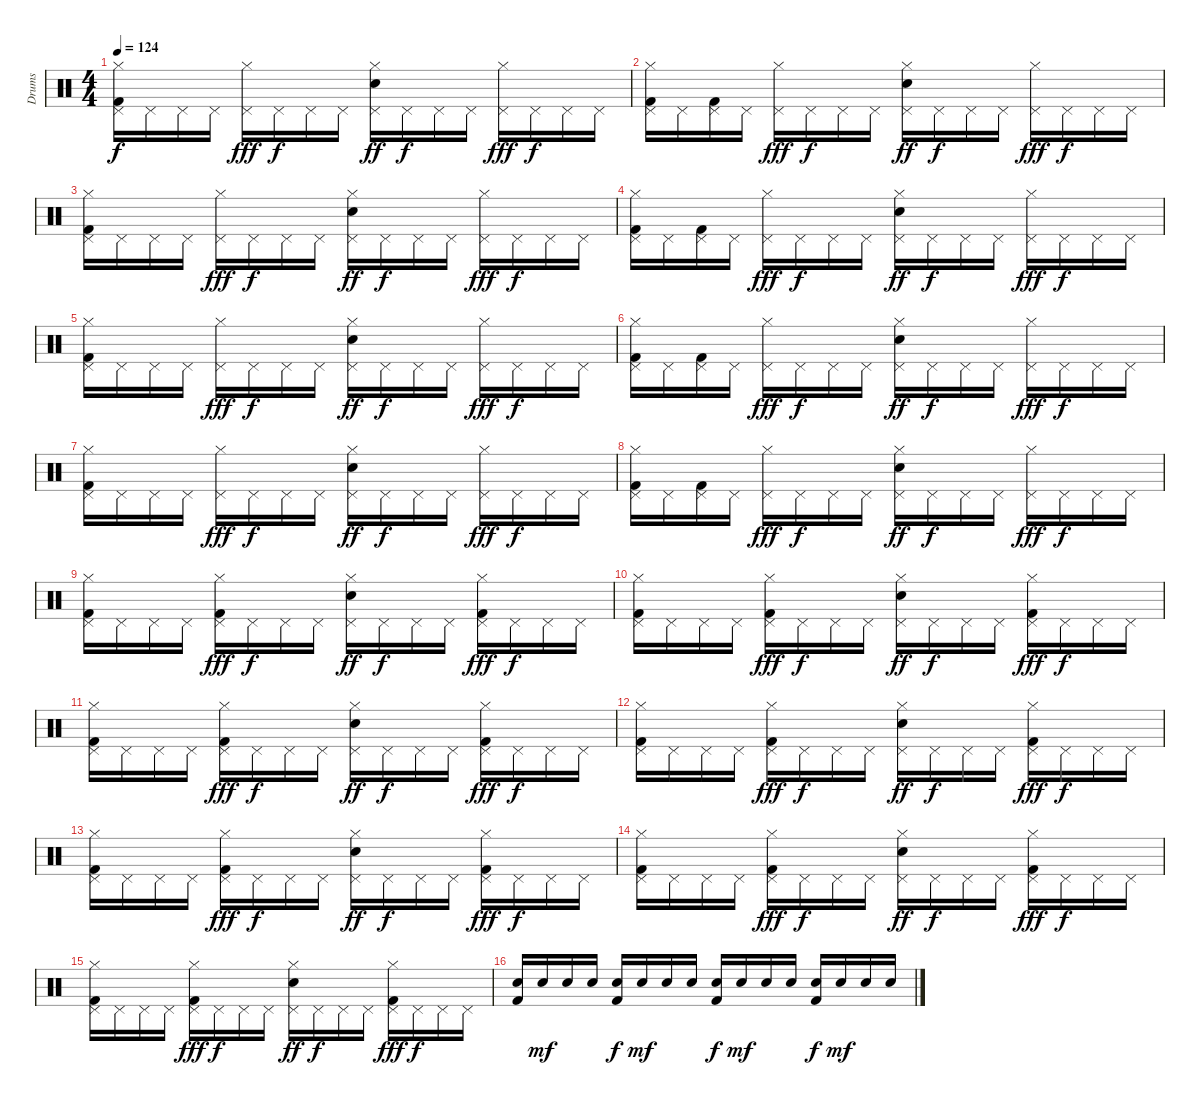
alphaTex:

\track ("Drums" "Drums") {instrument percussion}
\staff {score}
\articulation defaults
\ts (4 4)
\tempo 124
\clef neutral
\ks c
("Hi-Hat (closed)" "Pedal Hi-Hat (hit)" "Kick (hit) 2").16{dy f} "Pedal Hi-Hat (hit)".16 "Pedal Hi-Hat (hit)".16 "Pedal Hi-Hat (hit)".16 ("Hi-Hat (closed)" "Pedal Hi-Hat (hit)").16{dy fff} "Pedal Hi-Hat (hit)".16{dy f} "Pedal Hi-Hat (hit)".16 "Pedal Hi-Hat (hit)".16 ("Hi-Hat (closed)" "Pedal Hi-Hat (hit)" "Electric Snare (hit)").16{dy ff} "Pedal Hi-Hat (hit)".16{dy f} "Pedal Hi-Hat (hit)".16 "Pedal Hi-Hat (hit)".16 ("Hi-Hat (closed)" "Pedal Hi-Hat (hit)").16{dy fff} "Pedal Hi-Hat (hit)".16{dy f} "Pedal Hi-Hat (hit)".16 "Pedal Hi-Hat (hit)".16 |
("Hi-Hat (closed)" "Pedal Hi-Hat (hit)" "Kick (hit) 2").16 "Pedal Hi-Hat (hit)".16 ("Pedal Hi-Hat (hit)" "Kick (hit) 2").16 "Pedal Hi-Hat (hit)".16 ("Hi-Hat (closed)" "Pedal Hi-Hat (hit)").16{dy fff} "Pedal Hi-Hat (hit)".16{dy f} "Pedal Hi-Hat (hit)".16 "Pedal Hi-Hat (hit)".16 ("Hi-Hat (closed)" "Pedal Hi-Hat (hit)" "Electric Snare (hit)").16{dy ff} "Pedal Hi-Hat (hit)".16{dy f} "Pedal Hi-Hat (hit)".16 "Pedal Hi-Hat (hit)".16 ("Hi-Hat (closed)" "Pedal Hi-Hat (hit)").16{dy fff} "Pedal Hi-Hat (hit)".16{dy f} "Pedal Hi-Hat (hit)".16 "Pedal Hi-Hat (hit)".16 |
("Hi-Hat (closed)" "Pedal Hi-Hat (hit)" "Kick (hit) 2").16 "Pedal Hi-Hat (hit)".16 "Pedal Hi-Hat (hit)".16 "Pedal Hi-Hat (hit)".16 ("Hi-Hat (closed)" "Pedal Hi-Hat (hit)").16{dy fff} "Pedal Hi-Hat (hit)".16{dy f} "Pedal Hi-Hat (hit)".16 "Pedal Hi-Hat (hit)".16 ("Hi-Hat (closed)" "Pedal Hi-Hat (hit)" "Electric Snare (hit)").16{dy ff} "Pedal Hi-Hat (hit)".16{dy f} "Pedal Hi-Hat (hit)".16 "Pedal Hi-Hat (hit)".16 ("Hi-Hat (closed)" "Pedal Hi-Hat (hit)").16{dy fff} "Pedal Hi-Hat (hit)".16{dy f} "Pedal Hi-Hat (hit)".16 "Pedal Hi-Hat (hit)".16 |
("Hi-Hat (closed)" "Pedal Hi-Hat (hit)" "Kick (hit) 2").16 "Pedal Hi-Hat (hit)".16 ("Pedal Hi-Hat (hit)" "Kick (hit) 2").16 "Pedal Hi-Hat (hit)".16 ("Hi-Hat (closed)" "Pedal Hi-Hat (hit)").16{dy fff} "Pedal Hi-Hat (hit)".16{dy f} "Pedal Hi-Hat (hit)".16 "Pedal Hi-Hat (hit)".16 ("Hi-Hat (closed)" "Pedal Hi-Hat (hit)" "Electric Snare (hit)").16{dy ff} "Pedal Hi-Hat (hit)".16{dy f} "Pedal Hi-Hat (hit)".16 "Pedal Hi-Hat (hit)".16 ("Hi-Hat (closed)" "Pedal Hi-Hat (hit)").16{dy fff} "Pedal Hi-Hat (hit)".16{dy f} "Pedal Hi-Hat (hit)".16 "Pedal Hi-Hat (hit)".16 |
("Hi-Hat (closed)" "Pedal Hi-Hat (hit)" "Kick (hit) 2").16 "Pedal Hi-Hat (hit)".16 "Pedal Hi-Hat (hit)".16 "Pedal Hi-Hat (hit)".16 ("Hi-Hat (closed)" "Pedal Hi-Hat (hit)").16{dy fff} "Pedal Hi-Hat (hit)".16{dy f} "Pedal Hi-Hat (hit)".16 "Pedal Hi-Hat (hit)".16 ("Hi-Hat (closed)" "Pedal Hi-Hat (hit)" "Electric Snare (hit)").16{dy ff} "Pedal Hi-Hat (hit)".16{dy f} "Pedal Hi-Hat (hit)".16 "Pedal Hi-Hat (hit)".16 ("Hi-Hat (closed)" "Pedal Hi-Hat (hit)").16{dy fff} "Pedal Hi-Hat (hit)".16{dy f} "Pedal Hi-Hat (hit)".16 "Pedal Hi-Hat (hit)".16 |
("Hi-Hat (closed)" "Pedal Hi-Hat (hit)" "Kick (hit) 2").16 "Pedal Hi-Hat (hit)".16 ("Pedal Hi-Hat (hit)" "Kick (hit) 2").16 "Pedal Hi-Hat (hit)".16 ("Hi-Hat (closed)" "Pedal Hi-Hat (hit)").16{dy fff} "Pedal Hi-Hat (hit)".16{dy f} "Pedal Hi-Hat (hit)".16 "Pedal Hi-Hat (hit)".16 ("Hi-Hat (closed)" "Pedal Hi-Hat (hit)" "Electric Snare (hit)").16{dy ff} "Pedal Hi-Hat (hit)".16{dy f} "Pedal Hi-Hat (hit)".16 "Pedal Hi-Hat (hit)".16 ("Hi-Hat (closed)" "Pedal Hi-Hat (hit)").16{dy fff} "Pedal Hi-Hat (hit)".16{dy f} "Pedal Hi-Hat (hit)".16 "Pedal Hi-Hat (hit)".16 |
("Hi-Hat (closed)" "Pedal Hi-Hat (hit)" "Kick (hit) 2").16 "Pedal Hi-Hat (hit)".16 "Pedal Hi-Hat (hit)".16 "Pedal Hi-Hat (hit)".16 ("Hi-Hat (closed)" "Pedal Hi-Hat (hit)").16{dy fff} "Pedal Hi-Hat (hit)".16{dy f} "Pedal Hi-Hat (hit)".16 "Pedal Hi-Hat (hit)".16 ("Hi-Hat (closed)" "Pedal Hi-Hat (hit)" "Electric Snare (hit)").16{dy ff} "Pedal Hi-Hat (hit)".16{dy f} "Pedal Hi-Hat (hit)".16 "Pedal Hi-Hat (hit)".16 ("Hi-Hat (closed)" "Pedal Hi-Hat (hit)").16{dy fff} "Pedal Hi-Hat (hit)".16{dy f} "Pedal Hi-Hat (hit)".16 "Pedal Hi-Hat (hit)".16 |
("Hi-Hat (closed)" "Pedal Hi-Hat (hit)" "Kick (hit) 2").16 "Pedal Hi-Hat (hit)".16 ("Pedal Hi-Hat (hit)" "Kick (hit) 2").16 "Pedal Hi-Hat (hit)".16 ("Hi-Hat (closed)" "Pedal Hi-Hat (hit)").16{dy fff} "Pedal Hi-Hat (hit)".16{dy f} "Pedal Hi-Hat (hit)".16 "Pedal Hi-Hat (hit)".16 ("Hi-Hat (closed)" "Pedal Hi-Hat (hit)" "Electric Snare (hit)").16{dy ff} "Pedal Hi-Hat (hit)".16{dy f} "Pedal Hi-Hat (hit)".16 "Pedal Hi-Hat (hit)".16 ("Hi-Hat (closed)" "Pedal Hi-Hat (hit)").16{dy fff} "Pedal Hi-Hat (hit)".16{dy f} "Pedal Hi-Hat (hit)".16 "Pedal Hi-Hat (hit)".16 |
("Hi-Hat (closed)" "Pedal Hi-Hat (hit)" "Kick (hit) 2").16 "Pedal Hi-Hat (hit)".16 "Pedal Hi-Hat (hit)".16 "Pedal Hi-Hat (hit)".16 ("Hi-Hat (closed)" "Pedal Hi-Hat (hit)" "Kick (hit) 2").16{dy fff} "Pedal Hi-Hat (hit)".16{dy f} "Pedal Hi-Hat (hit)".16 "Pedal Hi-Hat (hit)".16 ("Hi-Hat (closed)" "Pedal Hi-Hat (hit)" "Electric Snare (hit)").16{dy ff} "Pedal Hi-Hat (hit)".16{dy f} "Pedal Hi-Hat (hit)".16 "Pedal Hi-Hat (hit)".16 ("Hi-Hat (closed)" "Pedal Hi-Hat (hit)" "Kick (hit) 2").16{dy fff} "Pedal Hi-Hat (hit)".16{dy f} "Pedal Hi-Hat (hit)".16 "Pedal Hi-Hat (hit)".16 |
("Hi-Hat (closed)" "Pedal Hi-Hat (hit)" "Kick (hit) 2").16 "Pedal Hi-Hat (hit)".16 "Pedal Hi-Hat (hit)".16 "Pedal Hi-Hat (hit)".16 ("Hi-Hat (closed)" "Pedal Hi-Hat (hit)" "Kick (hit) 2").16{dy fff} "Pedal Hi-Hat (hit)".16{dy f} "Pedal Hi-Hat (hit)".16 "Pedal Hi-Hat (hit)".16 ("Hi-Hat (closed)" "Pedal Hi-Hat (hit)" "Electric Snare (hit)").16{dy ff} "Pedal Hi-Hat (hit)".16{dy f} "Pedal Hi-Hat (hit)".16 "Pedal Hi-Hat (hit)".16 ("Hi-Hat (closed)" "Pedal Hi-Hat (hit)" "Kick (hit) 2").16{dy fff} "Pedal Hi-Hat (hit)".16{dy f} "Pedal Hi-Hat (hit)".16 "Pedal Hi-Hat (hit)".16 |
("Hi-Hat (closed)" "Pedal Hi-Hat (hit)" "Kick (hit) 2").16 "Pedal Hi-Hat (hit)".16 "Pedal Hi-Hat (hit)".16 "Pedal Hi-Hat (hit)".16 ("Hi-Hat (closed)" "Pedal Hi-Hat (hit)" "Kick (hit) 2").16{dy fff} "Pedal Hi-Hat (hit)".16{dy f} "Pedal Hi-Hat (hit)".16 "Pedal Hi-Hat (hit)".16 ("Hi-Hat (closed)" "Pedal Hi-Hat (hit)" "Electric Snare (hit)").16{dy ff} "Pedal Hi-Hat (hit)".16{dy f} "Pedal Hi-Hat (hit)".16 "Pedal Hi-Hat (hit)".16 ("Hi-Hat (closed)" "Pedal Hi-Hat (hit)" "Kick (hit) 2").16{dy fff} "Pedal Hi-Hat (hit)".16{dy f} "Pedal Hi-Hat (hit)".16 "Pedal Hi-Hat (hit)".16 |
("Hi-Hat (closed)" "Pedal Hi-Hat (hit)" "Kick (hit) 2").16 "Pedal Hi-Hat (hit)".16 "Pedal Hi-Hat (hit)".16 "Pedal Hi-Hat (hit)".16 ("Hi-Hat (closed)" "Pedal Hi-Hat (hit)" "Kick (hit) 2").16{dy fff} "Pedal Hi-Hat (hit)".16{dy f} "Pedal Hi-Hat (hit)".16 "Pedal Hi-Hat (hit)".16 ("Hi-Hat (closed)" "Pedal Hi-Hat (hit)" "Electric Snare (hit)").16{dy ff} "Pedal Hi-Hat (hit)".16{dy f} "Pedal Hi-Hat (hit)".16 "Pedal Hi-Hat (hit)".16 ("Hi-Hat (closed)" "Pedal Hi-Hat (hit)" "Kick (hit) 2").16{dy fff} "Pedal Hi-Hat (hit)".16{dy f} "Pedal Hi-Hat (hit)".16 "Pedal Hi-Hat (hit)".16 |
("Hi-Hat (closed)" "Pedal Hi-Hat (hit)" "Kick (hit) 2").16 "Pedal Hi-Hat (hit)".16 "Pedal Hi-Hat (hit)".16 "Pedal Hi-Hat (hit)".16 ("Hi-Hat (closed)" "Pedal Hi-Hat (hit)" "Kick (hit) 2").16{dy fff} "Pedal Hi-Hat (hit)".16{dy f} "Pedal Hi-Hat (hit)".16 "Pedal Hi-Hat (hit)".16 ("Hi-Hat (closed)" "Pedal Hi-Hat (hit)" "Electric Snare (hit)").16{dy ff} "Pedal Hi-Hat (hit)".16{dy f} "Pedal Hi-Hat (hit)".16 "Pedal Hi-Hat (hit)".16 ("Hi-Hat (closed)" "Pedal Hi-Hat (hit)" "Kick (hit) 2").16{dy fff} "Pedal Hi-Hat (hit)".16{dy f} "Pedal Hi-Hat (hit)".16 "Pedal Hi-Hat (hit)".16 |
("Hi-Hat (closed)" "Pedal Hi-Hat (hit)" "Kick (hit) 2").16 "Pedal Hi-Hat (hit)".16 "Pedal Hi-Hat (hit)".16 "Pedal Hi-Hat (hit)".16 ("Hi-Hat (closed)" "Pedal Hi-Hat (hit)" "Kick (hit) 2").16{dy fff} "Pedal Hi-Hat (hit)".16{dy f} "Pedal Hi-Hat (hit)".16 "Pedal Hi-Hat (hit)".16 ("Hi-Hat (closed)" "Pedal Hi-Hat (hit)" "Electric Snare (hit)").16{dy ff} "Pedal Hi-Hat (hit)".16{dy f} "Pedal Hi-Hat (hit)".16 "Pedal Hi-Hat (hit)".16 ("Hi-Hat (closed)" "Pedal Hi-Hat (hit)" "Kick (hit) 2").16{dy fff} "Pedal Hi-Hat (hit)".16{dy f} "Pedal Hi-Hat (hit)".16 "Pedal Hi-Hat (hit)".16 |
("Hi-Hat (closed)" "Pedal Hi-Hat (hit)" "Kick (hit) 2").16 "Pedal Hi-Hat (hit)".16 "Pedal Hi-Hat (hit)".16 "Pedal Hi-Hat (hit)".16 ("Hi-Hat (closed)" "Pedal Hi-Hat (hit)" "Kick (hit) 2").16{dy fff} "Pedal Hi-Hat (hit)".16{dy f} "Pedal Hi-Hat (hit)".16 "Pedal Hi-Hat (hit)".16 ("Hi-Hat (closed)" "Pedal Hi-Hat (hit)" "Electric Snare (hit)").16{dy ff} "Pedal Hi-Hat (hit)".16{dy f} "Pedal Hi-Hat (hit)".16 "Pedal Hi-Hat (hit)".16 ("Hi-Hat (closed)" "Pedal Hi-Hat (hit)" "Kick (hit) 2").16{dy fff} "Pedal Hi-Hat (hit)".16{dy f} "Pedal Hi-Hat (hit)".16 "Pedal Hi-Hat (hit)".16 |
("Electric Snare (hit)" "Kick (hit) 2").16 "Electric Snare (hit)".16{dy mf} "Electric Snare (hit)".16 "Electric Snare (hit)".16 ("Electric Snare (hit)" "Kick (hit) 2").16{dy f} "Electric Snare (hit)".16{dy mf} "Electric Snare (hit)".16 "Electric Snare (hit)".16 ("Electric Snare (hit)" "Kick (hit) 2").16{dy f} "Electric Snare (hit)".16{dy mf} "Electric Snare (hit)".16 "Electric Snare (hit)".16 ("Electric Snare (hit)" "Kick (hit) 2").16{dy f} "Electric Snare (hit)".16{dy mf} "Electric Snare (hit)".16 "Electric Snare (hit)".16
